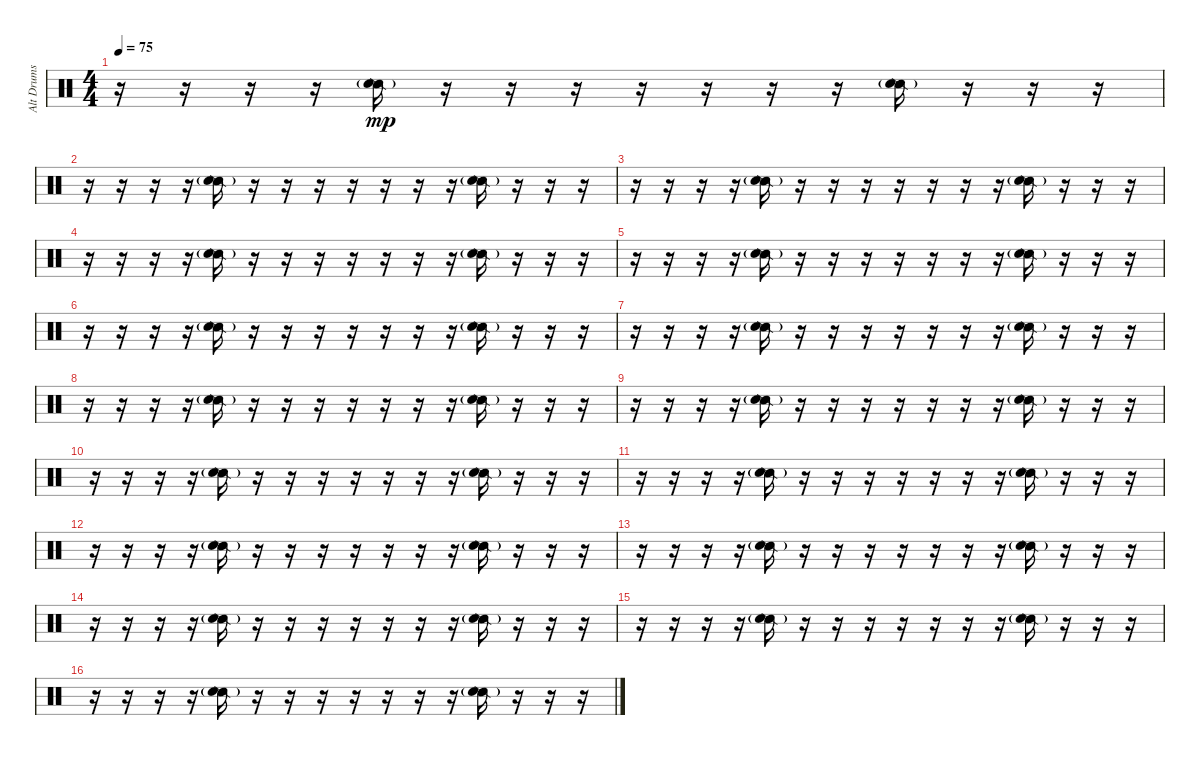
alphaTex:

\track ("Alt Drums" "Alt Drums") {instrument percussion}
\staff {score}
\articulation defaults
\ts (4 4)
\tempo 75
\clef neutral
\ks c
r.16{dy mp} r.16 r.16 r.16 ("Snare (side stick) 2" "Hand Clap (hit)"{g}).16 r.16 r.16 r.16 r.16 r.16 r.16 r.16 ("Snare (side stick) 2" "Hand Clap (hit)"{g}).16 r.16 r.16 r.16 |
r.16 r.16 r.16 r.16 ("Snare (side stick) 2" "Hand Clap (hit)"{g}).16 r.16 r.16 r.16 r.16 r.16 r.16 r.16 ("Snare (side stick) 2" "Hand Clap (hit)"{g}).16 r.16 r.16 r.16 |
r.16 r.16 r.16 r.16 ("Snare (side stick) 2" "Hand Clap (hit)"{g}).16 r.16 r.16 r.16 r.16 r.16 r.16 r.16 ("Snare (side stick) 2" "Hand Clap (hit)"{g}).16 r.16 r.16 r.16 |
r.16 r.16 r.16 r.16 ("Snare (side stick) 2" "Hand Clap (hit)"{g}).16 r.16 r.16 r.16 r.16 r.16 r.16 r.16 ("Snare (side stick) 2" "Hand Clap (hit)"{g}).16 r.16 r.16 r.16 |
r.16 r.16 r.16 r.16 ("Snare (side stick) 2" "Hand Clap (hit)"{g}).16 r.16 r.16 r.16 r.16 r.16 r.16 r.16 ("Snare (side stick) 2" "Hand Clap (hit)"{g}).16 r.16 r.16 r.16 |
r.16 r.16 r.16 r.16 ("Snare (side stick) 2" "Hand Clap (hit)"{g}).16 r.16 r.16 r.16 r.16 r.16 r.16 r.16 ("Snare (side stick) 2" "Hand Clap (hit)"{g}).16 r.16 r.16 r.16 |
r.16 r.16 r.16 r.16 ("Snare (side stick) 2" "Hand Clap (hit)"{g}).16 r.16 r.16 r.16 r.16 r.16 r.16 r.16 ("Snare (side stick) 2" "Hand Clap (hit)"{g}).16 r.16 r.16 r.16 |
r.16 r.16 r.16 r.16 ("Snare (side stick) 2" "Hand Clap (hit)"{g}).16 r.16 r.16 r.16 r.16 r.16 r.16 r.16 ("Snare (side stick) 2" "Hand Clap (hit)"{g}).16 r.16 r.16 r.16 |
r.16 r.16 r.16 r.16 ("Snare (side stick) 2" "Hand Clap (hit)"{g}).16 r.16 r.16 r.16 r.16 r.16 r.16 r.16 ("Snare (side stick) 2" "Hand Clap (hit)"{g}).16 r.16 r.16 r.16 |
r.16 r.16 r.16 r.16 ("Snare (side stick) 2" "Hand Clap (hit)"{g}).16 r.16 r.16 r.16 r.16 r.16 r.16 r.16 ("Snare (side stick) 2" "Hand Clap (hit)"{g}).16 r.16 r.16 r.16 |
r.16 r.16 r.16 r.16 ("Snare (side stick) 2" "Hand Clap (hit)"{g}).16 r.16 r.16 r.16 r.16 r.16 r.16 r.16 ("Snare (side stick) 2" "Hand Clap (hit)"{g}).16 r.16 r.16 r.16 |
r.16 r.16 r.16 r.16 ("Snare (side stick) 2" "Hand Clap (hit)"{g}).16 r.16 r.16 r.16 r.16 r.16 r.16 r.16 ("Snare (side stick) 2" "Hand Clap (hit)"{g}).16 r.16 r.16 r.16 |
r.16 r.16 r.16 r.16 ("Snare (side stick) 2" "Hand Clap (hit)"{g}).16 r.16 r.16 r.16 r.16 r.16 r.16 r.16 ("Snare (side stick) 2" "Hand Clap (hit)"{g}).16 r.16 r.16 r.16 |
r.16 r.16 r.16 r.16 ("Snare (side stick) 2" "Hand Clap (hit)"{g}).16 r.16 r.16 r.16 r.16 r.16 r.16 r.16 ("Snare (side stick) 2" "Hand Clap (hit)"{g}).16 r.16 r.16 r.16 |
r.16 r.16 r.16 r.16 ("Snare (side stick) 2" "Hand Clap (hit)"{g}).16 r.16 r.16 r.16 r.16 r.16 r.16 r.16 ("Snare (side stick) 2" "Hand Clap (hit)"{g}).16 r.16 r.16 r.16 |
r.16 r.16 r.16 r.16 ("Snare (side stick) 2" "Hand Clap (hit)"{g}).16 r.16 r.16 r.16 r.16 r.16 r.16 r.16 ("Snare (side stick) 2" "Hand Clap (hit)"{g}).16 r.16 r.16 r.16
